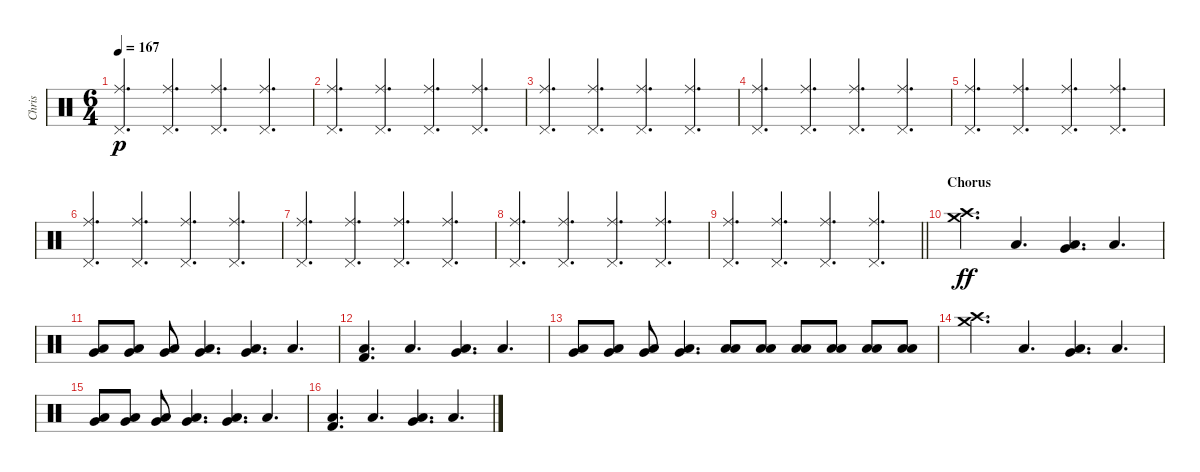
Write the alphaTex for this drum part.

\track ("Chris" "Chris") {instrument percussion}
\staff {score}
\articulation defaults
\ts (6 4)
\tempo 167
\clef neutral
\ks c
("Ride (middle)" "Pedal Hi-Hat (hit)").4{d dy p} ("Ride (middle)" "Pedal Hi-Hat (hit)").4{d} ("Ride (middle)" "Pedal Hi-Hat (hit)").4{d} ("Ride (middle)" "Pedal Hi-Hat (hit)").4{d} |
("Ride (middle)" "Pedal Hi-Hat (hit)").4{d} ("Ride (middle)" "Pedal Hi-Hat (hit)").4{d} ("Ride (middle)" "Pedal Hi-Hat (hit)").4{d} ("Ride (middle)" "Pedal Hi-Hat (hit)").4{d} |
("Ride (middle)" "Pedal Hi-Hat (hit)").4{d} ("Ride (middle)" "Pedal Hi-Hat (hit)").4{d} ("Ride (middle)" "Pedal Hi-Hat (hit)").4{d} ("Ride (middle)" "Pedal Hi-Hat (hit)").4{d} |
("Ride (middle)" "Pedal Hi-Hat (hit)").4{d} ("Ride (middle)" "Pedal Hi-Hat (hit)").4{d} ("Ride (middle)" "Pedal Hi-Hat (hit)").4{d} ("Ride (middle)" "Pedal Hi-Hat (hit)").4{d} |
("Ride (middle)" "Pedal Hi-Hat (hit)").4{d} ("Ride (middle)" "Pedal Hi-Hat (hit)").4{d} ("Ride (middle)" "Pedal Hi-Hat (hit)").4{d} ("Ride (middle)" "Pedal Hi-Hat (hit)").4{d} |
("Ride (middle)" "Pedal Hi-Hat (hit)").4{d} ("Ride (middle)" "Pedal Hi-Hat (hit)").4{d} ("Ride (middle)" "Pedal Hi-Hat (hit)").4{d} ("Ride (middle)" "Pedal Hi-Hat (hit)").4{d} |
("Ride (middle)" "Pedal Hi-Hat (hit)").4{d} ("Ride (middle)" "Pedal Hi-Hat (hit)").4{d} ("Ride (middle)" "Pedal Hi-Hat (hit)").4{d} ("Ride (middle)" "Pedal Hi-Hat (hit)").4{d} |
("Ride (middle)" "Pedal Hi-Hat (hit)").4{d} ("Ride (middle)" "Pedal Hi-Hat (hit)").4{d} ("Ride (middle)" "Pedal Hi-Hat (hit)").4{d} ("Ride (middle)" "Pedal Hi-Hat (hit)").4{d} |
\barLineRight lightlight
("Ride (middle)" "Pedal Hi-Hat (hit)").4{d} ("Ride (middle)" "Pedal Hi-Hat (hit)").4{d} ("Ride (middle)" "Pedal Hi-Hat (hit)").4{d} ("Ride (middle)" "Pedal Hi-Hat (hit)").4{d} |
\section ("" "Chorus")
("Crash medium (hit)" "Crash high (hit)").4{d dy ff} "Low Floor Tom (hit)".4{d} ("Very Low Tom (hit)" "Low Floor Tom (hit)").4{d} "Low Floor Tom (hit)".4{d} |
("Very Low Tom (hit)" "Low Floor Tom (hit)").8 ("Very Low Tom (hit)" "Low Floor Tom (hit)").8 ("Very Low Tom (hit)" "Low Floor Tom (hit)").8 ("Very Low Tom (hit)" "Low Floor Tom (hit)").4{d} ("Very Low Tom (hit)" "Low Floor Tom (hit)").4{d} "Low Floor Tom (hit)".4{d} |
("Low Floor Tom (hit)" "Kick (hit) 2").4{d} "Low Floor Tom (hit)".4{d} ("Very Low Tom (hit)" "Low Floor Tom (hit)").4{d} "Low Floor Tom (hit)".4{d} |
("Very Low Tom (hit)" "Low Floor Tom (hit)").8 ("Very Low Tom (hit)" "Low Floor Tom (hit)").8 ("Very Low Tom (hit)" "Low Floor Tom (hit)").8 ("Very Low Tom (hit)" "Low Floor Tom (hit)").4{d} ("Low Floor Tom (hit)" "Low Floor Tom (hit)").8 ("Low Floor Tom (hit)" "Low Floor Tom (hit)").8 ("Low Floor Tom (hit)" "Low Floor Tom (hit)").8 ("Low Floor Tom (hit)" "Low Floor Tom (hit)").8 ("Low Floor Tom (hit)" "Low Floor Tom (hit)").8 ("Low Floor Tom (hit)" "Low Floor Tom (hit)").8 |
("Crash medium (hit)" "Crash high (hit)").4{d} "Low Floor Tom (hit)".4{d} ("Very Low Tom (hit)" "Low Floor Tom (hit)").4{d} "Low Floor Tom (hit)".4{d} |
("Very Low Tom (hit)" "Low Floor Tom (hit)").8 ("Very Low Tom (hit)" "Low Floor Tom (hit)").8 ("Very Low Tom (hit)" "Low Floor Tom (hit)").8 ("Very Low Tom (hit)" "Low Floor Tom (hit)").4{d} ("Very Low Tom (hit)" "Low Floor Tom (hit)").4{d} "Low Floor Tom (hit)".4{d} |
("Low Floor Tom (hit)" "Kick (hit) 2").4{d} "Low Floor Tom (hit)".4{d} ("Very Low Tom (hit)" "Low Floor Tom (hit)").4{d} "Low Floor Tom (hit)".4{d}
